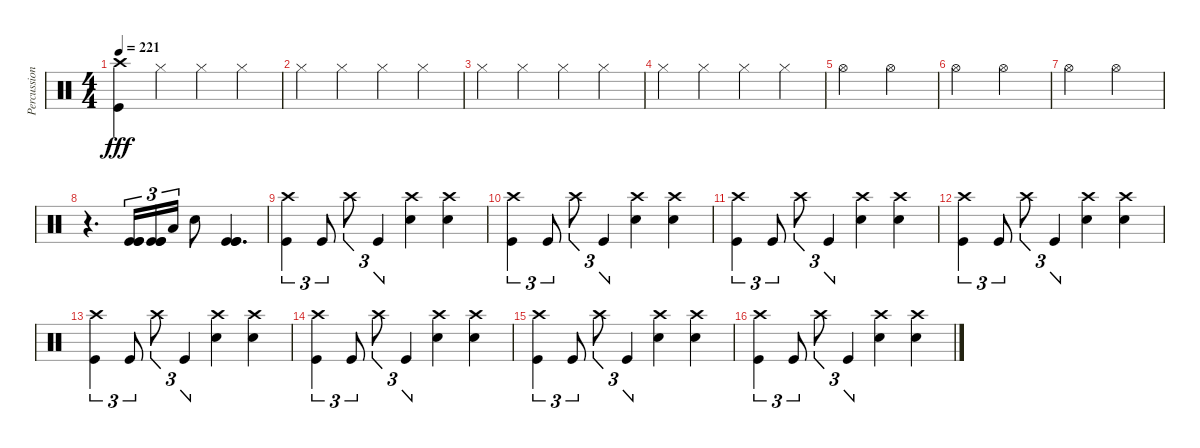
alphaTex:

\track ("Percussion" "Percussion") {instrument percussion}
\staff {score}
\articulation defaults
\ts (4 4)
\tempo 221
\clef neutral
\ks c
("Crash high (hit)" "Kick (hit)").4{dy fff} "Hi-Hat (closed)".4 "Hi-Hat (closed)".4 "Hi-Hat (closed)".4 |
"Hi-Hat (closed)".4 "Hi-Hat (closed)".4 "Hi-Hat (closed)".4 "Hi-Hat (closed)".4 |
"Hi-Hat (closed)".4 "Hi-Hat (closed)".4 "Hi-Hat (closed)".4 "Hi-Hat (closed)".4 |
"Hi-Hat (closed)".4 "Hi-Hat (closed)".4 "Hi-Hat (closed)".4 "Hi-Hat (closed)".4 |
"Hi-Hat (open)".2 "Hi-Hat (open)".2 |
"Hi-Hat (open)".2 "Hi-Hat (open)".2 |
"Hi-Hat (open)".2 "Hi-Hat (open)".2 |
r.4{d} ("Kick (hit)" "Kick (hit)" "Kick (hit)").16{tu (3 2)} ("Kick (hit)" "Kick (hit)" "Kick (hit)").16{tu (3 2)} "Low Tom (hit)".16{tu (3 2)} "Snare (hit) 2".8 ("Kick (hit)" "Kick (hit)" "Kick (hit)").4{d} |
("Crash high (hit)" "Kick (hit)").4{tu (3 2)} "Kick (hit)".8{tu (3 2)} "Crash high (hit)".8{tu (3 2)} "Kick (hit)".4{tu (3 2)} ("Crash high (hit)" "Snare (hit) 2").4 ("Crash high (hit)" "Snare (hit) 2").4 |
("Crash high (hit)" "Kick (hit)").4{tu (3 2)} "Kick (hit)".8{tu (3 2)} "Crash high (hit)".8{tu (3 2)} "Kick (hit)".4{tu (3 2)} ("Crash high (hit)" "Snare (hit) 2").4 ("Crash high (hit)" "Snare (hit) 2").4 |
("Crash high (hit)" "Kick (hit)").4{tu (3 2)} "Kick (hit)".8{tu (3 2)} "Crash high (hit)".8{tu (3 2)} "Kick (hit)".4{tu (3 2)} ("Crash high (hit)" "Snare (hit) 2").4 ("Crash high (hit)" "Snare (hit) 2").4 |
("Crash high (hit)" "Kick (hit)").4{tu (3 2)} "Kick (hit)".8{tu (3 2)} "Crash high (hit)".8{tu (3 2)} "Kick (hit)".4{tu (3 2)} ("Crash high (hit)" "Snare (hit) 2").4 ("Crash high (hit)" "Snare (hit) 2").4 |
("Crash high (hit)" "Kick (hit)").4{tu (3 2)} "Kick (hit)".8{tu (3 2)} "Crash high (hit)".8{tu (3 2)} "Kick (hit)".4{tu (3 2)} ("Crash high (hit)" "Snare (hit) 2").4 ("Crash high (hit)" "Snare (hit) 2").4 |
("Crash high (hit)" "Kick (hit)").4{tu (3 2)} "Kick (hit)".8{tu (3 2)} "Crash high (hit)".8{tu (3 2)} "Kick (hit)".4{tu (3 2)} ("Crash high (hit)" "Snare (hit) 2").4 ("Crash high (hit)" "Snare (hit) 2").4 |
("Crash high (hit)" "Kick (hit)").4{tu (3 2)} "Kick (hit)".8{tu (3 2)} "Crash high (hit)".8{tu (3 2)} "Kick (hit)".4{tu (3 2)} ("Crash high (hit)" "Snare (hit) 2").4 ("Crash high (hit)" "Snare (hit) 2").4 |
("Crash high (hit)" "Kick (hit)").4{tu (3 2)} "Kick (hit)".8{tu (3 2)} "Crash high (hit)".8{tu (3 2)} "Kick (hit)".4{tu (3 2)} ("Crash high (hit)" "Snare (hit) 2").4 ("Crash high (hit)" "Snare (hit) 2").4
